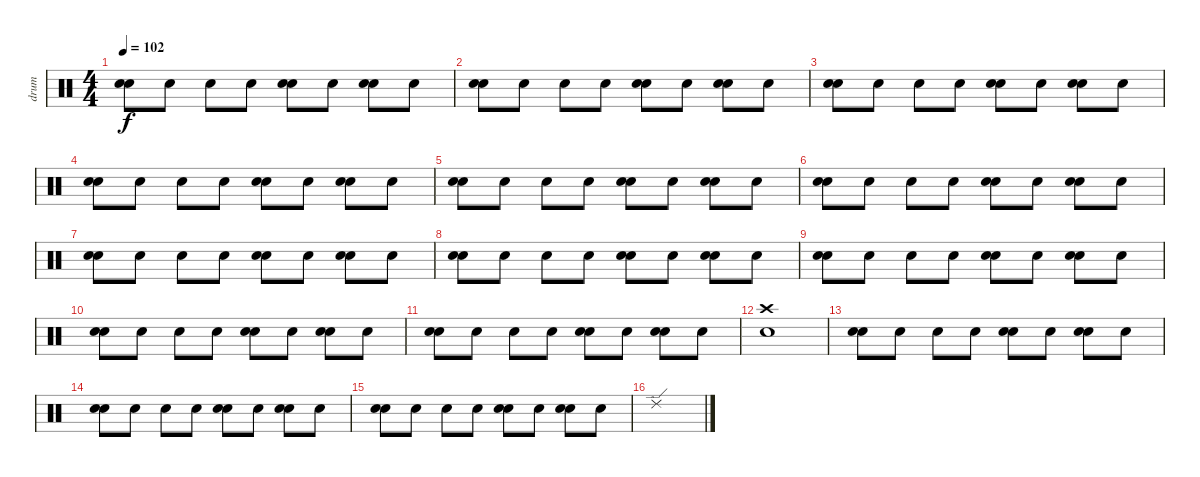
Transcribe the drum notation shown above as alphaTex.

\track ("drum" "drum") {instrument percussion}
\staff {score}
\articulation defaults
\ts (4 4)
\tempo 102
\clef neutral
\ks c
("Snare (hit) 2" "Electric Snare (hit)").8{dy f} "Electric Snare (hit)".8 "Electric Snare (hit)".8 "Electric Snare (hit)".8 ("Snare (hit) 2" "Electric Snare (hit)").8 "Electric Snare (hit)".8 ("Snare (hit) 2" "Electric Snare (hit)").8 "Electric Snare (hit)".8 |
("Snare (hit) 2" "Electric Snare (hit)").8 "Electric Snare (hit)".8 "Electric Snare (hit)".8 "Electric Snare (hit)".8 ("Snare (hit) 2" "Electric Snare (hit)").8 "Electric Snare (hit)".8 ("Snare (hit) 2" "Electric Snare (hit)").8 "Electric Snare (hit)".8 |
("Snare (hit) 2" "Electric Snare (hit)").8 "Electric Snare (hit)".8 "Electric Snare (hit)".8 "Electric Snare (hit)".8 ("Snare (hit) 2" "Electric Snare (hit)").8 "Electric Snare (hit)".8 ("Snare (hit) 2" "Electric Snare (hit)").8 "Electric Snare (hit)".8 |
("Snare (hit) 2" "Electric Snare (hit)").8 "Electric Snare (hit)".8 "Electric Snare (hit)".8 "Electric Snare (hit)".8 ("Snare (hit) 2" "Electric Snare (hit)").8 "Electric Snare (hit)".8 ("Snare (hit) 2" "Electric Snare (hit)").8 "Electric Snare (hit)".8 |
("Snare (hit) 2" "Electric Snare (hit)").8 "Electric Snare (hit)".8 "Electric Snare (hit)".8 "Electric Snare (hit)".8 ("Snare (hit) 2" "Electric Snare (hit)").8 "Electric Snare (hit)".8 ("Snare (hit) 2" "Electric Snare (hit)").8 "Electric Snare (hit)".8 |
("Snare (hit) 2" "Electric Snare (hit)").8 "Electric Snare (hit)".8 "Electric Snare (hit)".8 "Electric Snare (hit)".8 ("Snare (hit) 2" "Electric Snare (hit)").8 "Electric Snare (hit)".8 ("Snare (hit) 2" "Electric Snare (hit)").8 "Electric Snare (hit)".8 |
("Snare (hit) 2" "Electric Snare (hit)").8 "Electric Snare (hit)".8 "Electric Snare (hit)".8 "Electric Snare (hit)".8 ("Snare (hit) 2" "Electric Snare (hit)").8 "Electric Snare (hit)".8 ("Snare (hit) 2" "Electric Snare (hit)").8 "Electric Snare (hit)".8 |
("Snare (hit) 2" "Electric Snare (hit)").8 "Electric Snare (hit)".8 "Electric Snare (hit)".8 "Electric Snare (hit)".8 ("Snare (hit) 2" "Electric Snare (hit)").8 "Electric Snare (hit)".8 ("Snare (hit) 2" "Electric Snare (hit)").8 "Electric Snare (hit)".8 |
("Snare (hit) 2" "Electric Snare (hit)").8 "Electric Snare (hit)".8 "Electric Snare (hit)".8 "Electric Snare (hit)".8 ("Snare (hit) 2" "Electric Snare (hit)").8 "Electric Snare (hit)".8 ("Snare (hit) 2" "Electric Snare (hit)").8 "Electric Snare (hit)".8 |
("Snare (hit) 2" "Electric Snare (hit)").8 "Electric Snare (hit)".8 "Electric Snare (hit)".8 "Electric Snare (hit)".8 ("Snare (hit) 2" "Electric Snare (hit)").8 "Electric Snare (hit)".8 ("Snare (hit) 2" "Electric Snare (hit)").8 "Electric Snare (hit)".8 |
("Snare (hit) 2" "Electric Snare (hit)").8 "Electric Snare (hit)".8 "Electric Snare (hit)".8 "Electric Snare (hit)".8 ("Snare (hit) 2" "Electric Snare (hit)").8 "Electric Snare (hit)".8 ("Snare (hit) 2" "Electric Snare (hit)").8 "Electric Snare (hit)".8 |
("Snare (hit) 2" "Crash high (hit)").1 |
("Snare (hit) 2" "Electric Snare (hit)").8 "Electric Snare (hit)".8 "Electric Snare (hit)".8 "Electric Snare (hit)".8 ("Snare (hit) 2" "Electric Snare (hit)").8 "Electric Snare (hit)".8 ("Snare (hit) 2" "Electric Snare (hit)").8 "Electric Snare (hit)".8 |
("Snare (hit) 2" "Electric Snare (hit)").8 "Electric Snare (hit)".8 "Electric Snare (hit)".8 "Electric Snare (hit)".8 ("Snare (hit) 2" "Electric Snare (hit)").8 "Electric Snare (hit)".8 ("Snare (hit) 2" "Electric Snare (hit)").8 "Electric Snare (hit)".8 |
("Snare (hit) 2" "Electric Snare (hit)").8 "Electric Snare (hit)".8 "Electric Snare (hit)".8 "Electric Snare (hit)".8 ("Snare (hit) 2" "Electric Snare (hit)").8 "Electric Snare (hit)".8 ("Snare (hit) 2" "Electric Snare (hit)").8 "Electric Snare (hit)".8 |
"Ride (edge) 2".1
